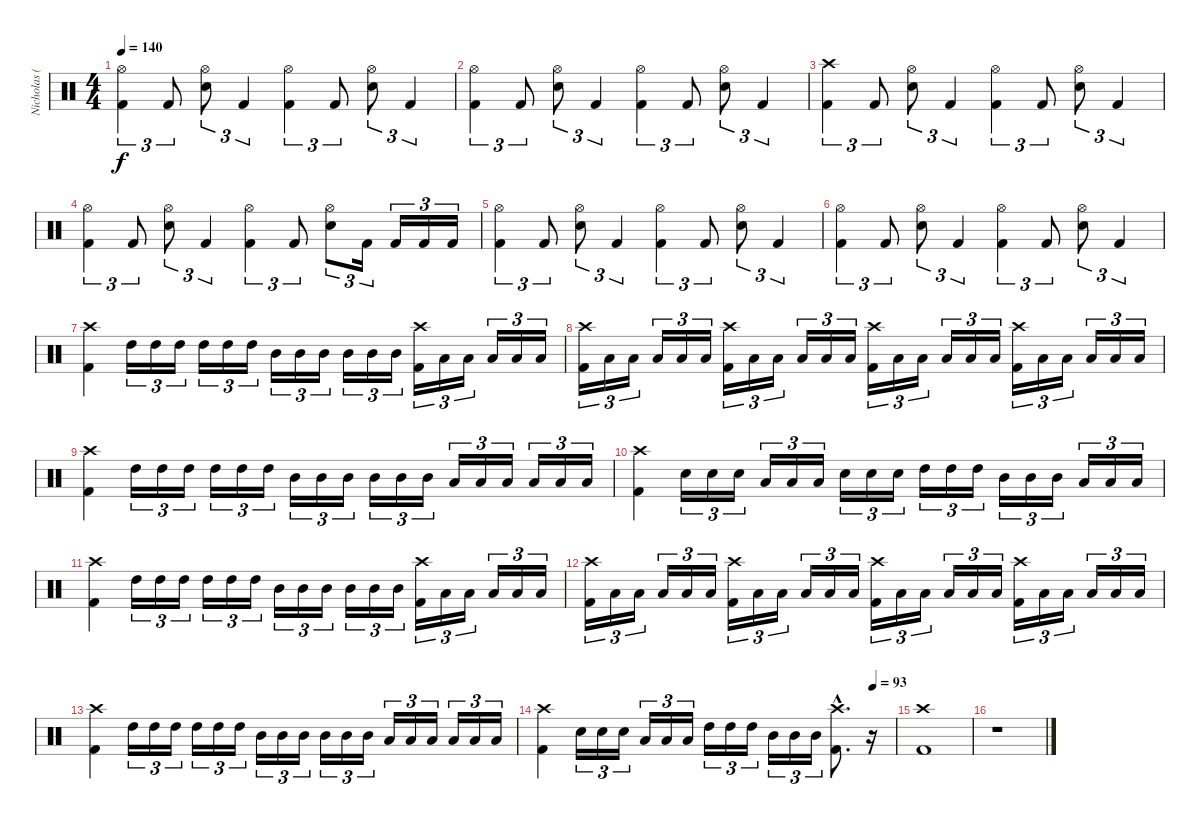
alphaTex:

\track ("Nicholas (Drums)" "Nicholas (") {instrument percussion}
\staff {score}
\articulation defaults
\ts (4 4)
\tempo 140
\clef neutral
\ks c
("Hi-Hat (open)" "Kick (hit) 2").4{tu (3 2) dy f} "Kick (hit) 2".8{tu (3 2)} ("Hi-Hat (open)" "Electric Snare (hit)").8{tu (3 2)} "Kick (hit) 2".4{tu (3 2)} ("Hi-Hat (open)" "Kick (hit) 2").4{tu (3 2)} "Kick (hit) 2".8{tu (3 2)} ("Hi-Hat (open)" "Electric Snare (hit)").8{tu (3 2)} "Kick (hit) 2".4{tu (3 2)} |
("Hi-Hat (open)" "Kick (hit) 2").4{tu (3 2)} "Kick (hit) 2".8{tu (3 2)} ("Hi-Hat (open)" "Electric Snare (hit)").8{tu (3 2)} "Kick (hit) 2".4{tu (3 2)} ("Hi-Hat (open)" "Kick (hit) 2").4{tu (3 2)} "Kick (hit) 2".8{tu (3 2)} ("Hi-Hat (open)" "Electric Snare (hit)").8{tu (3 2)} "Kick (hit) 2".4{tu (3 2)} |
("Crash high (hit)" "Kick (hit) 2").4{tu (3 2)} "Kick (hit) 2".8{tu (3 2)} ("Hi-Hat (open)" "Electric Snare (hit)").8{tu (3 2)} "Kick (hit) 2".4{tu (3 2)} ("Hi-Hat (open)" "Kick (hit) 2").4{tu (3 2)} "Kick (hit) 2".8{tu (3 2)} ("Hi-Hat (open)" "Electric Snare (hit)").8{tu (3 2)} "Kick (hit) 2".4{tu (3 2)} |
("Hi-Hat (open)" "Kick (hit) 2").4{tu (3 2)} "Kick (hit) 2".8{tu (3 2)} ("Hi-Hat (open)" "Electric Snare (hit)").8{tu (3 2)} "Kick (hit) 2".4{tu (3 2)} ("Hi-Hat (open)" "Kick (hit) 2").4{tu (3 2)} "Kick (hit) 2".8{tu (3 2)} ("Hi-Hat (open)" "Electric Snare (hit)").8{tu (3 2)} "Kick (hit) 2".16{tu (3 2)} "Kick (hit) 2".16{tu (3 2)} "Kick (hit) 2".16{tu (3 2)} "Kick (hit) 2".16{tu (3 2)} |
("Hi-Hat (open)" "Kick (hit) 2").4{tu (3 2)} "Kick (hit) 2".8{tu (3 2)} ("Hi-Hat (open)" "Electric Snare (hit)").8{tu (3 2)} "Kick (hit) 2".4{tu (3 2)} ("Hi-Hat (open)" "Kick (hit) 2").4{tu (3 2)} "Kick (hit) 2".8{tu (3 2)} ("Hi-Hat (open)" "Electric Snare (hit)").8{tu (3 2)} "Kick (hit) 2".4{tu (3 2)} |
("Hi-Hat (open)" "Kick (hit) 2").4{tu (3 2)} "Kick (hit) 2".8{tu (3 2)} ("Hi-Hat (open)" "Electric Snare (hit)").8{tu (3 2)} "Kick (hit) 2".4{tu (3 2)} ("Hi-Hat (open)" "Kick (hit) 2").4{tu (3 2)} "Kick (hit) 2".8{tu (3 2)} ("Hi-Hat (open)" "Electric Snare (hit)").8{tu (3 2)} "Kick (hit) 2".4{tu (3 2)} |
("Crash high (hit)" "Kick (hit) 2").4 "High Tom (hit)".16{tu (3 2)} "High Tom (hit)".16{tu (3 2)} "High Tom (hit)".16{tu (3 2)} "High Tom (hit)".16{tu (3 2)} "High Tom (hit)".16{tu (3 2)} "High Tom (hit)".16{tu (3 2)} "Mid Tom (hit)".16{tu (3 2)} "Mid Tom (hit)".16{tu (3 2)} "Mid Tom (hit)".16{tu (3 2)} "Mid Tom (hit)".16{tu (3 2)} "Mid Tom (hit)".16{tu (3 2)} "Mid Tom (hit)".16{tu (3 2)} ("Crash high (hit)" "Kick (hit) 2").16{tu (3 2)} "Low Floor Tom (hit)".16{tu (3 2)} "Low Floor Tom (hit)".16{tu (3 2)} "Low Floor Tom (hit)".16{tu (3 2)} "Low Floor Tom (hit)".16{tu (3 2)} "Low Floor Tom (hit)".16{tu (3 2)} |
("Crash high (hit)" "Kick (hit) 2").16{tu (3 2)} "Low Floor Tom (hit)".16{tu (3 2)} "Low Floor Tom (hit)".16{tu (3 2)} "Low Floor Tom (hit)".16{tu (3 2)} "Low Floor Tom (hit)".16{tu (3 2)} "Low Floor Tom (hit)".16{tu (3 2)} ("Crash high (hit)" "Kick (hit) 2").16{tu (3 2)} "Low Floor Tom (hit)".16{tu (3 2)} "Low Floor Tom (hit)".16{tu (3 2)} "Low Floor Tom (hit)".16{tu (3 2)} "Low Floor Tom (hit)".16{tu (3 2)} "Low Floor Tom (hit)".16{tu (3 2)} ("Crash high (hit)" "Kick (hit) 2").16{tu (3 2)} "Low Floor Tom (hit)".16{tu (3 2)} "Low Floor Tom (hit)".16{tu (3 2)} "Low Floor Tom (hit)".16{tu (3 2)} "Low Floor Tom (hit)".16{tu (3 2)} "Low Floor Tom (hit)".16{tu (3 2)} ("Crash high (hit)" "Kick (hit) 2").16{tu (3 2)} "Low Floor Tom (hit)".16{tu (3 2)} "Low Floor Tom (hit)".16{tu (3 2)} "Low Floor Tom (hit)".16{tu (3 2)} "Low Floor Tom (hit)".16{tu (3 2)} "Low Floor Tom (hit)".16{tu (3 2)} |
("Crash high (hit)" "Kick (hit) 2").4 "High Tom (hit)".16{tu (3 2)} "High Tom (hit)".16{tu (3 2)} "High Tom (hit)".16{tu (3 2)} "High Tom (hit)".16{tu (3 2)} "High Tom (hit)".16{tu (3 2)} "High Tom (hit)".16{tu (3 2)} "Mid Tom (hit)".16{tu (3 2)} "Mid Tom (hit)".16{tu (3 2)} "Mid Tom (hit)".16{tu (3 2)} "Mid Tom (hit)".16{tu (3 2)} "Mid Tom (hit)".16{tu (3 2)} "Mid Tom (hit)".16{tu (3 2)} "Low Floor Tom (hit)".16{tu (3 2)} "Low Floor Tom (hit)".16{tu (3 2)} "Low Floor Tom (hit)".16{tu (3 2)} "Low Floor Tom (hit)".16{tu (3 2)} "Low Floor Tom (hit)".16{tu (3 2)} "Low Floor Tom (hit)".16{tu (3 2)} |
("Crash high (hit)" "Kick (hit) 2").4 "Electric Snare (hit)".16{tu (3 2)} "Electric Snare (hit)".16{tu (3 2)} "Electric Snare (hit)".16{tu (3 2)} "Low Tom (hit)".16{tu (3 2)} "Low Tom (hit)".16{tu (3 2)} "Low Tom (hit)".16{tu (3 2)} "Electric Snare (hit)".16{tu (3 2)} "Electric Snare (hit)".16{tu (3 2)} "Electric Snare (hit)".16{tu (3 2)} "High Tom (hit)".16{tu (3 2)} "High Tom (hit)".16{tu (3 2)} "High Tom (hit)".16{tu (3 2)} "Mid Tom (hit)".16{tu (3 2)} "Mid Tom (hit)".16{tu (3 2)} "Mid Tom (hit)".16{tu (3 2)} "Low Tom (hit)".16{tu (3 2)} "Low Tom (hit)".16{tu (3 2)} "Low Tom (hit)".16{tu (3 2)} |
("Crash high (hit)" "Kick (hit) 2").4 "High Tom (hit)".16{tu (3 2)} "High Tom (hit)".16{tu (3 2)} "High Tom (hit)".16{tu (3 2)} "High Tom (hit)".16{tu (3 2)} "High Tom (hit)".16{tu (3 2)} "High Tom (hit)".16{tu (3 2)} "Mid Tom (hit)".16{tu (3 2)} "Mid Tom (hit)".16{tu (3 2)} "Mid Tom (hit)".16{tu (3 2)} "Mid Tom (hit)".16{tu (3 2)} "Mid Tom (hit)".16{tu (3 2)} "Mid Tom (hit)".16{tu (3 2)} ("Crash high (hit)" "Kick (hit) 2").16{tu (3 2)} "Low Floor Tom (hit)".16{tu (3 2)} "Low Floor Tom (hit)".16{tu (3 2)} "Low Floor Tom (hit)".16{tu (3 2)} "Low Floor Tom (hit)".16{tu (3 2)} "Low Floor Tom (hit)".16{tu (3 2)} |
("Crash high (hit)" "Kick (hit) 2").16{tu (3 2)} "Low Floor Tom (hit)".16{tu (3 2)} "Low Floor Tom (hit)".16{tu (3 2)} "Low Floor Tom (hit)".16{tu (3 2)} "Low Floor Tom (hit)".16{tu (3 2)} "Low Floor Tom (hit)".16{tu (3 2)} ("Crash high (hit)" "Kick (hit) 2").16{tu (3 2)} "Low Floor Tom (hit)".16{tu (3 2)} "Low Floor Tom (hit)".16{tu (3 2)} "Low Floor Tom (hit)".16{tu (3 2)} "Low Floor Tom (hit)".16{tu (3 2)} "Low Floor Tom (hit)".16{tu (3 2)} ("Crash high (hit)" "Kick (hit) 2").16{tu (3 2)} "Low Floor Tom (hit)".16{tu (3 2)} "Low Floor Tom (hit)".16{tu (3 2)} "Low Floor Tom (hit)".16{tu (3 2)} "Low Floor Tom (hit)".16{tu (3 2)} "Low Floor Tom (hit)".16{tu (3 2)} ("Crash high (hit)" "Kick (hit) 2").16{tu (3 2)} "Low Floor Tom (hit)".16{tu (3 2)} "Low Floor Tom (hit)".16{tu (3 2)} "Low Floor Tom (hit)".16{tu (3 2)} "Low Floor Tom (hit)".16{tu (3 2)} "Low Floor Tom (hit)".16{tu (3 2)} |
("Crash high (hit)" "Kick (hit) 2").4 "High Tom (hit)".16{tu (3 2)} "High Tom (hit)".16{tu (3 2)} "High Tom (hit)".16{tu (3 2)} "High Tom (hit)".16{tu (3 2)} "High Tom (hit)".16{tu (3 2)} "High Tom (hit)".16{tu (3 2)} "Mid Tom (hit)".16{tu (3 2)} "Mid Tom (hit)".16{tu (3 2)} "Mid Tom (hit)".16{tu (3 2)} "Mid Tom (hit)".16{tu (3 2)} "Mid Tom (hit)".16{tu (3 2)} "Mid Tom (hit)".16{tu (3 2)} "Low Floor Tom (hit)".16{tu (3 2)} "Low Floor Tom (hit)".16{tu (3 2)} "Low Floor Tom (hit)".16{tu (3 2)} "Low Floor Tom (hit)".16{tu (3 2)} "Low Floor Tom (hit)".16{tu (3 2)} "Low Floor Tom (hit)".16{tu (3 2)} |
\tempo (93 0.9375)
("Crash high (hit)" "Kick (hit) 2").4 "Electric Snare (hit)".16{tu (3 2)} "Electric Snare (hit)".16{tu (3 2)} "Electric Snare (hit)".16{tu (3 2)} "Low Tom (hit)".16{tu (3 2)} "Low Tom (hit)".16{tu (3 2)} "Low Tom (hit)".16{tu (3 2)} "High Tom (hit)".16{tu (3 2)} "High Tom (hit)".16{tu (3 2)} "High Tom (hit)".16{tu (3 2)} "Mid Tom (hit)".16{tu (3 2)} "Mid Tom (hit)".16{tu (3 2)} "Mid Tom (hit)".16{tu (3 2)} ("Crash high (hit)"{hac} "Kick (hit) 2"{hac}).8{d} r.16 |
("Crash high (hit)" "Kick (hit) 2").1 |
r.1
